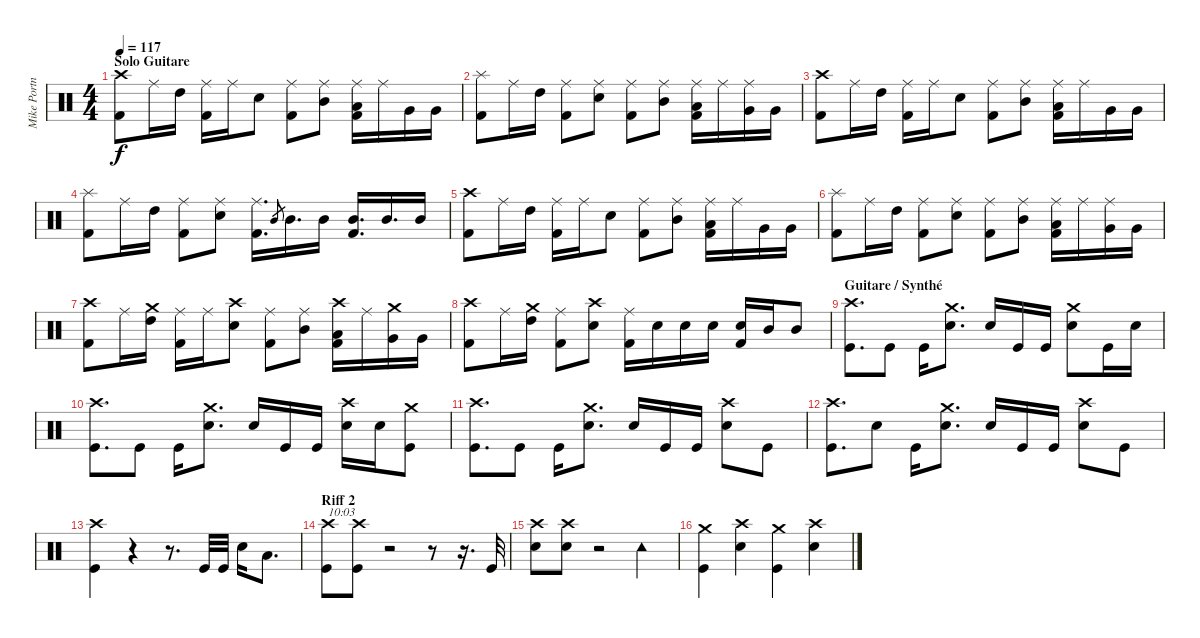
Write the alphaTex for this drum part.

\track ("Mike Portnoy" "Mike Portn") {instrument percussion}
\staff {score}
\articulation defaults
\ts (4 4)
\section ("" "Solo Guitare")
\tempo 117
\clef neutral
\ks c
("Crash high (hit)" "Kick (hit) 2").8{dy f} "Ride (middle)".16 "High Tom (hit)".16 ("Ride (middle)" "Kick (hit) 2").16 "Ride (middle)".16 "Snare (hit) 2".8 ("Ride (middle)" "Kick (hit) 2").8 ("Ride (middle)" "Mid Tom (hit)").8 ("Ride (middle)" "Low Tom (hit)" "Kick (hit) 2").16 "Ride (middle)".16 "Very Low Tom (hit)".16 "Very Low Tom (hit)".16 |
("Splash (hit)" "Kick (hit) 2").8 "Ride (middle)".16 "High Tom (hit)".16 ("Ride (middle)" "Kick (hit) 2").8 ("Ride (middle)" "Snare (hit) 2").8 ("Ride (middle)" "Kick (hit) 2").8 ("Ride (middle)" "Mid Tom (hit)").8 ("Ride (middle)" "Low Tom (hit)" "Kick (hit) 2").16 "Ride (middle)".16 ("Ride (middle)" "Very Low Tom (hit)").16 "Very Low Tom (hit)".16 |
("Crash high (hit)" "Kick (hit) 2").8 "Ride (middle)".16 "High Tom (hit)".16 ("Ride (middle)" "Kick (hit) 2").16 "Ride (middle)".16 "Snare (hit) 2".8 ("Ride (middle)" "Kick (hit) 2").8 ("Ride (middle)" "Mid Tom (hit)").8 ("Ride (middle)" "Low Tom (hit)" "Kick (hit) 2").16 "Ride (middle)".16 "Very Low Tom (hit)".16 "Very Low Tom (hit)".16 |
("Splash (hit)" "Kick (hit) 2").8 "Ride (middle)".16 "High Tom (hit)".16 ("Ride (middle)" "Kick (hit) 2").8 ("Ride (middle)" "Snare (hit) 2").8 ("Ride (middle)" "Kick (hit) 2").16{d} "Mid Tom (hit)".8{gr} "Mid Tom (hit)".16{d} "Mid Tom (hit)".16 ("Mid Tom (hit)" "Kick (hit) 2").16{d} "Mid Tom (hit)".16{d} "Mid Tom (hit)".16 |
("Crash high (hit)" "Kick (hit) 2").8 "Ride (middle)".16 "High Tom (hit)".16 ("Ride (middle)" "Kick (hit) 2").16 "Ride (middle)".16 "Snare (hit) 2".8 ("Ride (middle)" "Kick (hit) 2").8 ("Ride (middle)" "Mid Tom (hit)").8 ("Ride (middle)" "Low Tom (hit)" "Kick (hit) 2").16 "Ride (middle)".16 "Very Low Tom (hit)".16 "Very Low Tom (hit)".16 |
("Splash (hit)" "Kick (hit) 2").8 "Ride (middle)".16 "High Tom (hit)".16 ("Ride (middle)" "Kick (hit) 2").8 ("Ride (middle)" "Snare (hit) 2").8 ("Ride (middle)" "Kick (hit) 2").8 ("Ride (middle)" "Mid Tom (hit)").8 ("Ride (middle)" "Low Tom (hit)" "Kick (hit) 2").16 "Ride (middle)".16 ("Ride (middle)" "Very Low Tom (hit)").16 "Very Low Tom (hit)".16 |
("Crash high (hit)" "Kick (hit) 2").8 "Ride (middle)".16 ("Crash medium (hit)" "High Tom (hit)").16 ("Ride (middle)" "Kick (hit) 2").16 "Ride (middle)".16 ("Crash high (hit)" "Snare (hit) 2").8 ("Ride (middle)" "Kick (hit) 2").8 ("Ride (middle)" "Mid Tom (hit)").8 ("Crash high (hit)" "Low Tom (hit)" "Kick (hit) 2").16 "Ride (middle)".16 ("Crash medium (hit)" "Very Low Tom (hit)").16 "Very Low Tom (hit)".16 |
("Crash high (hit)" "Kick (hit) 2").8 "Ride (middle)".16 ("Crash medium (hit)" "High Tom (hit)").16 ("Ride (middle)" "Kick (hit) 2").8 ("Crash high (hit)" "Snare (hit) 2").8 ("Ride (middle)" "Kick (hit) 2").16 "Snare (hit) 2".16 "Snare (hit) 2".16 "Snare (hit) 2".16 ("Snare (hit) 2" "Kick (hit) 2").16 "Mid Tom (hit)".16 "Mid Tom (hit)".8 |
\section ("" "Guitare / Synthé")
("Crash high (hit)" "Kick (hit)").8{d} "Kick (hit)".8 "Kick (hit)".16 ("Crash medium (hit)" "Snare (hit) 2").8{d} "Snare (hit) 2".16 "Kick (hit)".16 "Kick (hit)".16 ("Crash medium (hit)" "Snare (hit) 2").8 "Kick (hit)".16 "Snare (hit) 2".16 |
("Crash high (hit)" "Kick (hit)").8{d} "Kick (hit)".8 "Kick (hit)".16 ("Crash medium (hit)" "Snare (hit) 2").8{d} "Snare (hit) 2".16 "Kick (hit)".16 "Kick (hit)".16 ("Crash high (hit)" "Snare (hit) 2").16 "Snare (hit) 2".16 ("Crash medium (hit)" "Kick (hit)").8 |
("Crash high (hit)" "Kick (hit)").8{d} "Kick (hit)".8 "Kick (hit)".16 ("Crash medium (hit)" "Snare (hit) 2").8{d} "Snare (hit) 2".16 "Kick (hit)".16 "Kick (hit)".16 ("Crash high (hit)" "Snare (hit) 2").8 "Kick (hit)".8 |
("Crash high (hit)" "Kick (hit)").8{d} "Snare (hit) 2".8 "Kick (hit)".16 ("Crash medium (hit)" "Snare (hit) 2").8{d} "Snare (hit) 2".16 "Kick (hit)".16 "Kick (hit)".16 ("Crash high (hit)" "Snare (hit) 2").8 "Kick (hit)".8 |
("Crash high (hit)" "Kick (hit)").4 r.4 r.8{d} "Kick (hit)".32 "Kick (hit)".32 "Snare (hit) 2".16 "Low Tom (hit)".8{d} |
\section ("" "Riff 2")
("Crash high (hit)" "Kick (hit)").8{txt "10:03"} ("Crash high (hit)" "Kick (hit)").8 r.2 r.8 r.16{d} "Kick (hit)".32 |
("Crash high (hit)" "Snare (hit) 2").8 ("Crash high (hit)" "Snare (hit) 2").8 r.2 "Tambourine (hit)".4 |
("Crash medium (hit)" "Kick (hit)").4 ("Crash high (hit)" "Snare (hit) 2").4 ("Crash medium (hit)" "Kick (hit)").4 ("Crash high (hit)" "Snare (hit) 2").4
